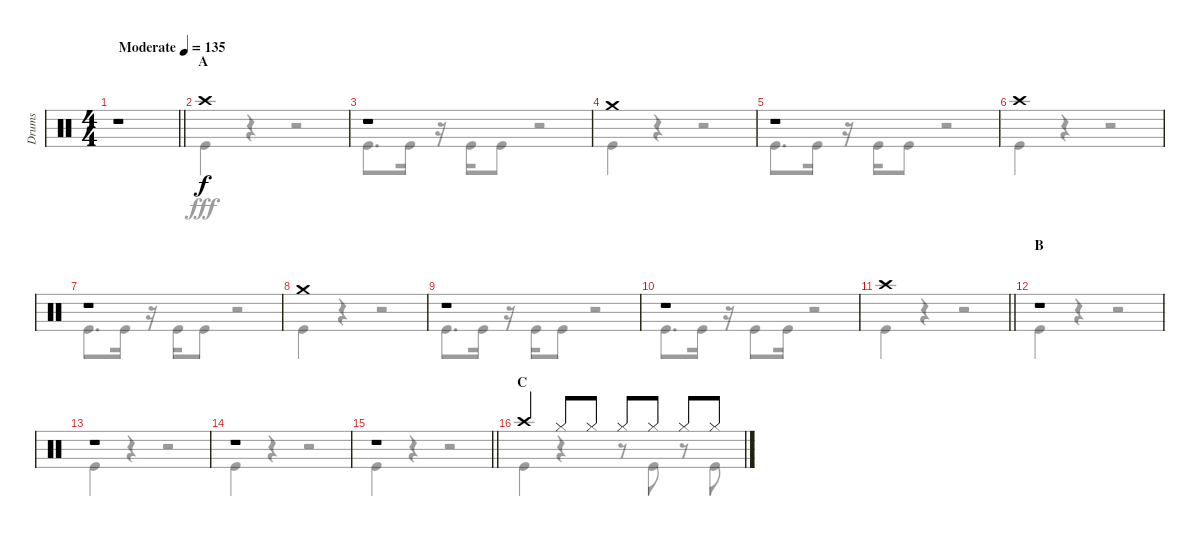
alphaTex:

\track ("Drums" "Drums") {instrument percussion}
\staff {score}
\articulation defaults
\voice
\ts (4 4)
\tempo (135 "Moderate")
\clef neutral
\barLineRight lightlight
\ks c
r.1{dy f} |
\section ("" "A")
"Crash high (hit)".1 |
r.1 |
"Crash medium (hit)".1 |
r.1 |
"Crash high (hit)".1 |
r.1 |
"Crash medium (hit)".1 |
r.1 |
r.1 |
\barLineRight lightlight "Crash high (hit)".1
|
\section ("" "B")
r.1 |
r.1 |
r.1 |
\barLineRight lightlight
r.1 |
\section ("" "C")
"Crash high (hit)".4 "Hi-Hat (closed)".8 "Hi-Hat (closed)".8 "Hi-Hat (closed)".8 "Hi-Hat (closed)".8 "Hi-Hat (closed)".8 "Hi-Hat (closed)".8
\voice
\clef neutral
\ottava regular
\simile none
\barLineRight lightlight
\ks c
r.1{dy fff} |
"Kick (hit)".4 r.4 r.2 |
"Kick (hit)".8{d} "Kick (hit)".16 r.16 "Kick (hit)".16 "Kick (hit)".8 r.2 |
"Kick (hit)".4 r.4 r.2 |
"Kick (hit)".8{d} "Kick (hit)".16 r.16 "Kick (hit)".16 "Kick (hit)".8 r.2 |
"Kick (hit)".4 r.4 r.2 |
"Kick (hit)".8{d} "Kick (hit)".16 r.16 "Kick (hit)".16 "Kick (hit)".8 r.2 |
"Kick (hit)".4 r.4 r.2 |
"Kick (hit)".8{d} "Kick (hit)".16 r.16 "Kick (hit)".16 "Kick (hit)".8 r.2 |
"Kick (hit)".8{d} "Kick (hit)".16 r.16 "Kick (hit)".8 "Kick (hit)".16 r.2 |
\barLineRight lightlight "Kick (hit)".4
r.4 r.2 |
"Kick (hit)".4 r.4 r.2 |
"Kick (hit)".4 r.4 r.2 |
"Kick (hit)".4 r.4 r.2 |
\barLineRight lightlight "Kick (hit)".4
r.4 r.2 |
"Kick (hit)".4 r.4 r.8 "Kick (hit)".8 r.8 "Kick (hit)".8
